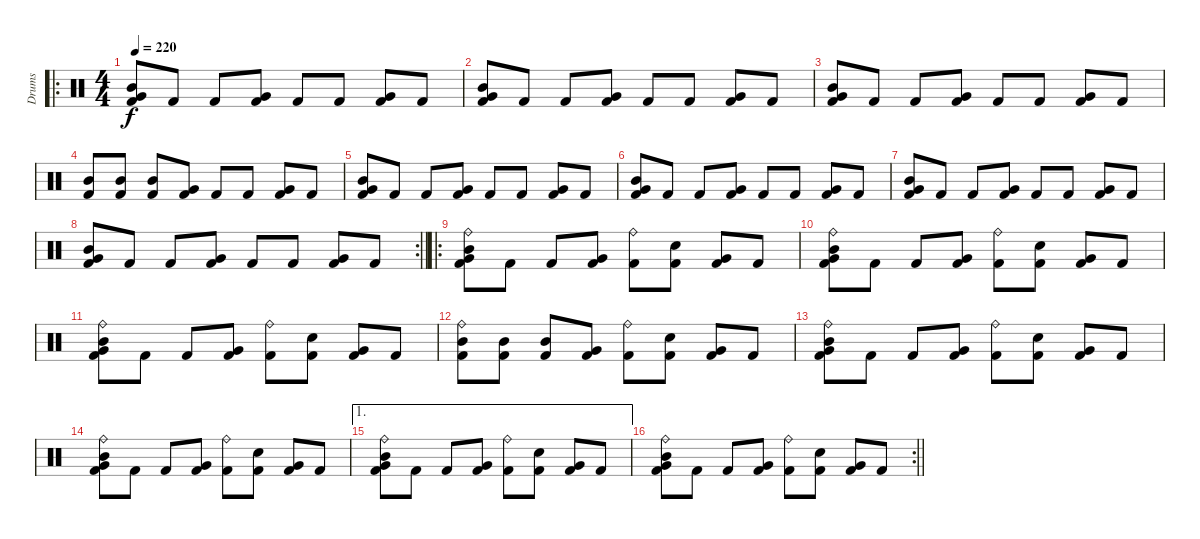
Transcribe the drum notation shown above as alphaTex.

\track ("Drums" "Drums") {instrument percussion}
\staff {score}
\articulation defaults
\ro
\ts (4 4)
\tempo 220
\clef neutral
\ks c
("Kick (hit) 2" "Mid Tom (hit)" "Very Low Tom (hit)").8{dy f} "Kick (hit) 2".8 "Kick (hit) 2".8 ("Kick (hit) 2" "Very Low Tom (hit)").8 "Kick (hit) 2".8 "Kick (hit) 2".8 ("Kick (hit) 2" "Very Low Tom (hit)").8 "Kick (hit) 2".8 |
("Kick (hit) 2" "Mid Tom (hit)" "Very Low Tom (hit)").8 "Kick (hit) 2".8 "Kick (hit) 2".8 ("Kick (hit) 2" "Very Low Tom (hit)").8 "Kick (hit) 2".8 "Kick (hit) 2".8 ("Kick (hit) 2" "Very Low Tom (hit)").8 "Kick (hit) 2".8 |
("Kick (hit) 2" "Mid Tom (hit)" "Very Low Tom (hit)").8 "Kick (hit) 2".8 "Kick (hit) 2".8 ("Kick (hit) 2" "Very Low Tom (hit)").8 "Kick (hit) 2".8 "Kick (hit) 2".8 ("Kick (hit) 2" "Very Low Tom (hit)").8 "Kick (hit) 2".8 |
("Kick (hit) 2" "Mid Tom (hit)").8 ("Kick (hit) 2" "Mid Tom (hit)").8 ("Kick (hit) 2" "Mid Tom (hit)").8 ("Kick (hit) 2" "Very Low Tom (hit)").8 "Kick (hit) 2".8 "Kick (hit) 2".8 ("Kick (hit) 2" "Very Low Tom (hit)").8 "Kick (hit) 2".8 |
("Kick (hit) 2" "Mid Tom (hit)" "Very Low Tom (hit)").8 "Kick (hit) 2".8 "Kick (hit) 2".8 ("Kick (hit) 2" "Very Low Tom (hit)").8 "Kick (hit) 2".8 "Kick (hit) 2".8 ("Kick (hit) 2" "Very Low Tom (hit)").8 "Kick (hit) 2".8 |
("Kick (hit) 2" "Mid Tom (hit)" "Very Low Tom (hit)").8 "Kick (hit) 2".8 "Kick (hit) 2".8 ("Kick (hit) 2" "Very Low Tom (hit)").8 "Kick (hit) 2".8 "Kick (hit) 2".8 ("Kick (hit) 2" "Very Low Tom (hit)").8 "Kick (hit) 2".8 |
("Kick (hit) 2" "Mid Tom (hit)" "Very Low Tom (hit)").8 "Kick (hit) 2".8 "Kick (hit) 2".8 ("Kick (hit) 2" "Very Low Tom (hit)").8 "Kick (hit) 2".8 "Kick (hit) 2".8 ("Kick (hit) 2" "Very Low Tom (hit)").8 "Kick (hit) 2".8 |
\rc 2
\barLineRight lightlight
("Kick (hit) 2" "Mid Tom (hit)" "Very Low Tom (hit)").8 "Kick (hit) 2".8 "Kick (hit) 2".8 ("Kick (hit) 2" "Very Low Tom (hit)").8 "Kick (hit) 2".8 "Kick (hit) 2".8 ("Kick (hit) 2" "Very Low Tom (hit)").8 "Kick (hit) 2".8 |
\ro
("Kick (hit) 2" "Mid Tom (hit)" "Very Low Tom (hit)" "Ride (bell)").8 "Kick (hit) 2".8 "Kick (hit) 2".8 ("Kick (hit) 2" "Very Low Tom (hit)").8 ("Kick (hit) 2" "Ride (bell)").8 ("Kick (hit) 2" "Electric Snare (hit)").8 ("Kick (hit) 2" "Very Low Tom (hit)").8 "Kick (hit) 2".8 |
("Kick (hit) 2" "Mid Tom (hit)" "Very Low Tom (hit)" "Ride (bell)").8 "Kick (hit) 2".8 "Kick (hit) 2".8 ("Kick (hit) 2" "Very Low Tom (hit)").8 ("Kick (hit) 2" "Ride (bell)").8 ("Kick (hit) 2" "Electric Snare (hit)").8 ("Kick (hit) 2" "Very Low Tom (hit)").8 "Kick (hit) 2".8 |
("Kick (hit) 2" "Mid Tom (hit)" "Very Low Tom (hit)" "Ride (bell)").8 "Kick (hit) 2".8 "Kick (hit) 2".8 ("Kick (hit) 2" "Very Low Tom (hit)").8 ("Kick (hit) 2" "Ride (bell)").8 ("Kick (hit) 2" "Electric Snare (hit)").8 ("Kick (hit) 2" "Very Low Tom (hit)").8 "Kick (hit) 2".8 |
("Kick (hit) 2" "Mid Tom (hit)" "Ride (bell)").8 ("Kick (hit) 2" "Mid Tom (hit)").8 ("Kick (hit) 2" "Mid Tom (hit)").8 ("Kick (hit) 2" "Very Low Tom (hit)").8 ("Kick (hit) 2" "Ride (bell)").8 ("Kick (hit) 2" "Electric Snare (hit)").8 ("Kick (hit) 2" "Very Low Tom (hit)").8 "Kick (hit) 2".8 |
("Kick (hit) 2" "Mid Tom (hit)" "Very Low Tom (hit)" "Ride (bell)").8 "Kick (hit) 2".8 "Kick (hit) 2".8 ("Kick (hit) 2" "Very Low Tom (hit)").8 ("Kick (hit) 2" "Ride (bell)").8 ("Kick (hit) 2" "Electric Snare (hit)").8 ("Kick (hit) 2" "Very Low Tom (hit)").8 "Kick (hit) 2".8 |
("Kick (hit) 2" "Mid Tom (hit)" "Very Low Tom (hit)" "Ride (bell)").8 "Kick (hit) 2".8 "Kick (hit) 2".8 ("Kick (hit) 2" "Very Low Tom (hit)").8 ("Kick (hit) 2" "Ride (bell)").8 ("Kick (hit) 2" "Electric Snare (hit)").8 ("Kick (hit) 2" "Very Low Tom (hit)").8 "Kick (hit) 2".8 |
\ae 1
("Kick (hit) 2" "Mid Tom (hit)" "Very Low Tom (hit)" "Ride (bell)").8 "Kick (hit) 2".8 "Kick (hit) 2".8 ("Kick (hit) 2" "Very Low Tom (hit)").8 ("Kick (hit) 2" "Ride (bell)").8 ("Kick (hit) 2" "Electric Snare (hit)").8 ("Kick (hit) 2" "Very Low Tom (hit)").8 "Kick (hit) 2".8 |
\rc 2
\barLineRight lightlight
("Kick (hit) 2" "Mid Tom (hit)" "Very Low Tom (hit)" "Ride (bell)").8 "Kick (hit) 2".8 "Kick (hit) 2".8 ("Kick (hit) 2" "Very Low Tom (hit)").8 ("Kick (hit) 2" "Ride (bell)").8 ("Kick (hit) 2" "Electric Snare (hit)").8 ("Kick (hit) 2" "Very Low Tom (hit)").8 "Kick (hit) 2".8
